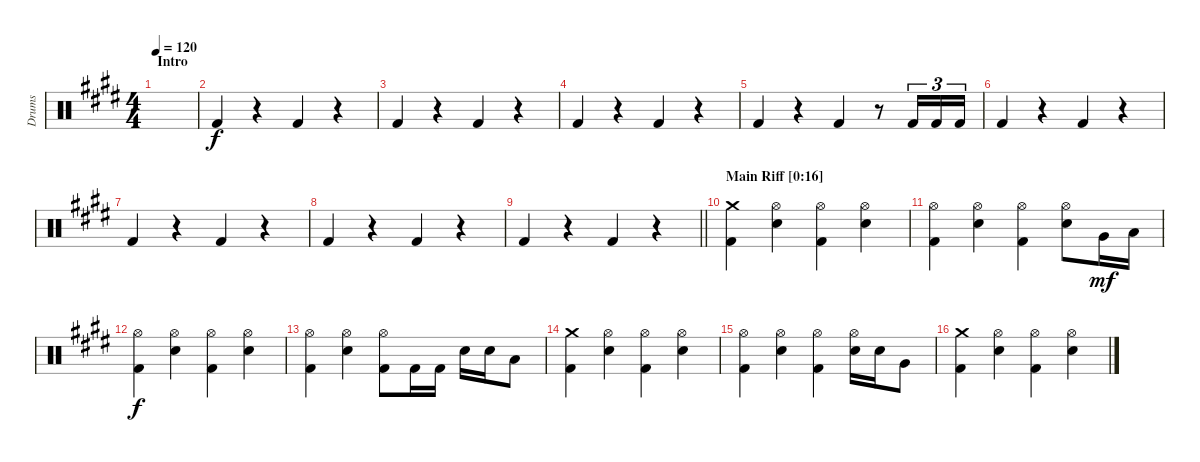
\track ("Drums" "Drums") {instrument percussion}
\staff {score}
\articulation defaults
\ts (4 4)
\section ("" "Intro")
\tempo 120
\clef neutral
\ks c#minor
|
"Kick (hit) 2".4 r.4 "Kick (hit) 2".4 r.4 |
"Kick (hit) 2".4 r.4 "Kick (hit) 2".4 r.4 |
"Kick (hit) 2".4 r.4 "Kick (hit) 2".4 r.4 |
"Kick (hit) 2".4 r.4 "Kick (hit) 2".4 r.8 "Kick (hit) 2".16{tu (3 2)} "Kick (hit) 2".16{tu (3 2)} "Kick (hit) 2".16{tu (3 2)} |
"Kick (hit) 2".4 r.4 "Kick (hit) 2".4 r.4 |
"Kick (hit) 2".4 r.4 "Kick (hit) 2".4 r.4 |
"Kick (hit) 2".4 r.4 "Kick (hit) 2".4 r.4 |
\barLineRight lightlight "Kick (hit) 2".4
r.4 "Kick (hit) 2".4 r.4 |
\section ("" "Main Riff [0:16]")
("Crash medium (hit)" "Kick (hit) 2").4 ("Hi-Hat (open)" "Snare (hit) 2").4 ("Hi-Hat (open)" "Kick (hit) 2").4 ("Hi-Hat (open)" "Snare (hit) 2").4 |
("Hi-Hat (open)" "Kick (hit) 2").4 ("Hi-Hat (open)" "Snare (hit) 2").4 ("Hi-Hat (open)" "Kick (hit) 2").4 ("Hi-Hat (open)" "Snare (hit) 2").8 "Very Low Tom (hit)".16{dy mf} "Low Floor Tom (hit)".16 |
("Hi-Hat (open)" "Kick (hit) 2").4{dy f} ("Hi-Hat (open)" "Snare (hit) 2").4 ("Hi-Hat (open)" "Kick (hit) 2").4 ("Hi-Hat (open)" "Snare (hit) 2").4 |
("Hi-Hat (open)" "Kick (hit) 2").4 ("Hi-Hat (open)" "Snare (hit) 2").4 ("Hi-Hat (open)" "Kick (hit) 2").8 "Kick (hit) 2".16 "Kick (hit) 2".16 "Snare (hit) 2".16 "Snare (hit) 2".16 "Low Tom (hit)".8 |
("Crash medium (hit)" "Kick (hit) 2").4 ("Hi-Hat (open)" "Snare (hit) 2").4 ("Hi-Hat (open)" "Kick (hit) 2").4 ("Hi-Hat (open)" "Snare (hit) 2").4 |
("Hi-Hat (open)" "Kick (hit) 2").4 ("Hi-Hat (open)" "Snare (hit) 2").4 ("Hi-Hat (open)" "Kick (hit) 2").4 ("Hi-Hat (open)" "Snare (hit) 2").16 "Snare (hit) 2".16 "Very Low Tom (hit)".8 |
("Crash medium (hit)" "Kick (hit) 2").4 ("Hi-Hat (open)" "Snare (hit) 2").4 ("Hi-Hat (open)" "Kick (hit) 2").4 ("Hi-Hat (open)" "Snare (hit) 2").4
